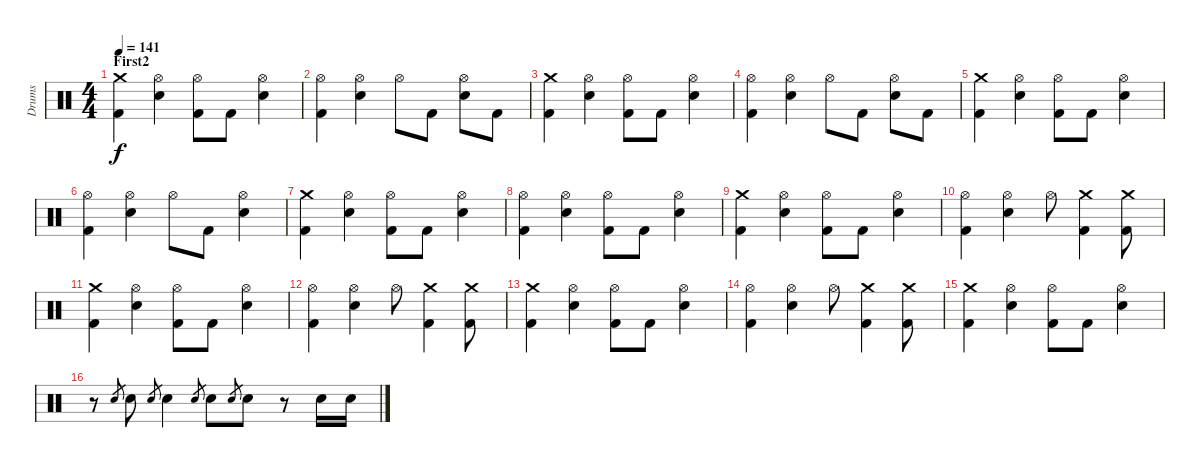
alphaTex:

\track ("Drums" "Drums") {instrument percussion}
\staff {score}
\articulation defaults
\ts (4 4)
\section ("" "First2")
\tempo 141
\clef neutral
\ks c
("Crash medium (hit)" "Kick (hit) 2").4{dy f} ("Hi-Hat (open)" "Electric Snare (hit)").4 ("Hi-Hat (open)" "Kick (hit) 2").8 "Kick (hit) 2".8 ("Hi-Hat (open)" "Electric Snare (hit)").4 |
("Hi-Hat (open)" "Kick (hit) 2").4 ("Hi-Hat (open)" "Electric Snare (hit)").4 "Hi-Hat (open)".8 "Kick (hit) 2".8 ("Hi-Hat (open)" "Electric Snare (hit)").8 "Kick (hit) 2".8 |
("Crash medium (hit)" "Kick (hit) 2").4 ("Hi-Hat (open)" "Electric Snare (hit)").4 ("Hi-Hat (open)" "Kick (hit) 2").8 "Kick (hit) 2".8 ("Hi-Hat (open)" "Electric Snare (hit)").4 |
("Hi-Hat (open)" "Kick (hit) 2").4 ("Hi-Hat (open)" "Electric Snare (hit)").4 "Hi-Hat (open)".8 "Kick (hit) 2".8 ("Hi-Hat (open)" "Electric Snare (hit)").8 "Kick (hit) 2".8 |
("Crash medium (hit)" "Kick (hit) 2").4 ("Hi-Hat (open)" "Electric Snare (hit)").4 ("Hi-Hat (open)" "Kick (hit) 2").8 "Kick (hit) 2".8 ("Hi-Hat (open)" "Electric Snare (hit)").4 |
("Hi-Hat (open)" "Kick (hit) 2").4 ("Hi-Hat (open)" "Electric Snare (hit)").4 "Hi-Hat (open)".8 "Kick (hit) 2".8 ("Hi-Hat (open)" "Electric Snare (hit)").4 |
("Crash medium (hit)" "Kick (hit) 2").4 ("Hi-Hat (open)" "Electric Snare (hit)").4 ("Hi-Hat (open)" "Kick (hit) 2").8 "Kick (hit) 2".8 ("Hi-Hat (open)" "Electric Snare (hit)").4 |
("Hi-Hat (open)" "Kick (hit) 2").4 ("Hi-Hat (open)" "Electric Snare (hit)").4 ("Hi-Hat (open)" "Kick (hit) 2").8 "Kick (hit) 2".8 ("Hi-Hat (open)" "Electric Snare (hit)").4 |
("Crash medium (hit)" "Kick (hit) 2").4 ("Hi-Hat (open)" "Electric Snare (hit)").4 ("Hi-Hat (open)" "Kick (hit) 2").8 "Kick (hit) 2".8 ("Hi-Hat (open)" "Electric Snare (hit)").4 |
("Hi-Hat (open)" "Kick (hit) 2").4 ("Hi-Hat (open)" "Electric Snare (hit)").4 "Hi-Hat (open)".8 ("Crash medium (hit)" "Kick (hit) 2").4 ("Crash medium (hit)" "Kick (hit) 2").8 |
("Crash medium (hit)" "Kick (hit) 2").4 ("Hi-Hat (open)" "Electric Snare (hit)").4 ("Hi-Hat (open)" "Kick (hit) 2").8 "Kick (hit) 2".8 ("Hi-Hat (open)" "Electric Snare (hit)").4 |
("Hi-Hat (open)" "Kick (hit) 2").4 ("Hi-Hat (open)" "Electric Snare (hit)").4 "Hi-Hat (open)".8 ("Crash medium (hit)" "Kick (hit) 2").4 ("Crash medium (hit)" "Kick (hit) 2").8 |
("Crash medium (hit)" "Kick (hit) 2").4 ("Hi-Hat (open)" "Electric Snare (hit)").4 ("Hi-Hat (open)" "Kick (hit) 2").8 "Kick (hit) 2".8 ("Hi-Hat (open)" "Electric Snare (hit)").4 |
("Hi-Hat (open)" "Kick (hit) 2").4 ("Hi-Hat (open)" "Electric Snare (hit)").4 "Hi-Hat (open)".8 ("Crash medium (hit)" "Kick (hit) 2").4 ("Crash medium (hit)" "Kick (hit) 2").8 |
("Crash medium (hit)" "Kick (hit) 2").4 ("Hi-Hat (open)" "Electric Snare (hit)").4 ("Hi-Hat (open)" "Kick (hit) 2").8 "Kick (hit) 2".8 ("Hi-Hat (open)" "Electric Snare (hit)").4 |
r.8 "Electric Snare (hit)".8{gr} "Electric Snare (hit)".8 "Electric Snare (hit)".8{gr} "Electric Snare (hit)".4 "Electric Snare (hit)".8{gr} "Electric Snare (hit)".8 "Electric Snare (hit)".8{gr} "Electric Snare (hit)".8 r.8 "Electric Snare (hit)".16 "Electric Snare (hit)".16
